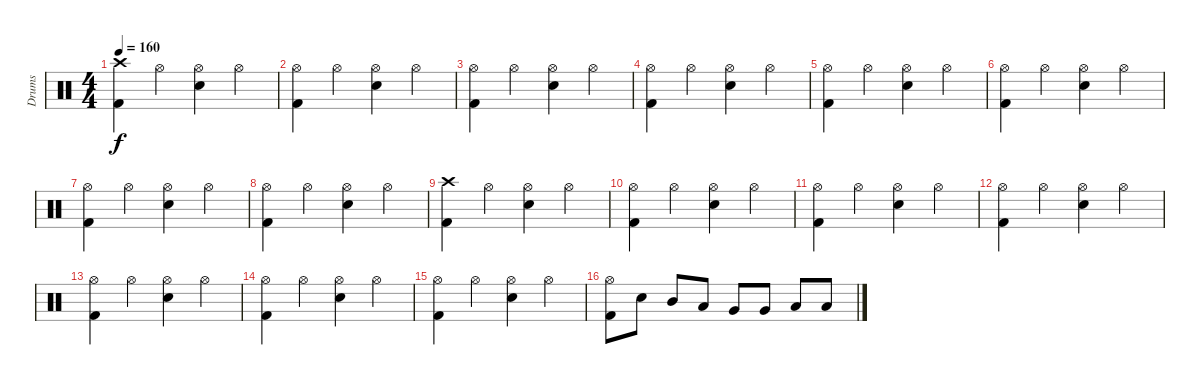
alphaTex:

\track ("Drums" "Drums") {instrument percussion}
\staff {score}
\articulation defaults
\ts (4 4)
\tempo 160
\clef neutral
\ks c
("Kick (hit) 2" "Crash high (hit)").4{dy f} "Hi-Hat (open)".4 ("Electric Snare (hit)" "Hi-Hat (open)").4 "Hi-Hat (open)".4 |
("Kick (hit) 2" "Hi-Hat (open)").4 "Hi-Hat (open)".4 ("Electric Snare (hit)" "Hi-Hat (open)").4 "Hi-Hat (open)".4 |
("Kick (hit) 2" "Hi-Hat (open)").4 "Hi-Hat (open)".4 ("Electric Snare (hit)" "Hi-Hat (open)").4 "Hi-Hat (open)".4 |
("Kick (hit) 2" "Hi-Hat (open)").4 "Hi-Hat (open)".4 ("Electric Snare (hit)" "Hi-Hat (open)").4 "Hi-Hat (open)".4 |
("Kick (hit) 2" "Hi-Hat (open)").4 "Hi-Hat (open)".4 ("Electric Snare (hit)" "Hi-Hat (open)").4 "Hi-Hat (open)".4 |
("Kick (hit) 2" "Hi-Hat (open)").4 "Hi-Hat (open)".4 ("Electric Snare (hit)" "Hi-Hat (open)").4 "Hi-Hat (open)".4 |
("Kick (hit) 2" "Hi-Hat (open)").4 "Hi-Hat (open)".4 ("Electric Snare (hit)" "Hi-Hat (open)").4 "Hi-Hat (open)".4 |
("Kick (hit) 2" "Hi-Hat (open)").4 "Hi-Hat (open)".4 ("Electric Snare (hit)" "Hi-Hat (open)").4 "Hi-Hat (open)".4 |
("Kick (hit) 2" "Crash high (hit)").4 "Hi-Hat (open)".4 ("Electric Snare (hit)" "Hi-Hat (open)").4 "Hi-Hat (open)".4 |
("Kick (hit) 2" "Hi-Hat (open)").4 "Hi-Hat (open)".4 ("Electric Snare (hit)" "Hi-Hat (open)").4 "Hi-Hat (open)".4 |
("Kick (hit) 2" "Hi-Hat (open)").4 "Hi-Hat (open)".4 ("Electric Snare (hit)" "Hi-Hat (open)").4 "Hi-Hat (open)".4 |
("Kick (hit) 2" "Hi-Hat (open)").4 "Hi-Hat (open)".4 ("Electric Snare (hit)" "Hi-Hat (open)").4 "Hi-Hat (open)".4 |
("Kick (hit) 2" "Hi-Hat (open)").4 "Hi-Hat (open)".4 ("Electric Snare (hit)" "Hi-Hat (open)").4 "Hi-Hat (open)".4 |
("Kick (hit) 2" "Hi-Hat (open)").4 "Hi-Hat (open)".4 ("Electric Snare (hit)" "Hi-Hat (open)").4 "Hi-Hat (open)".4 |
("Kick (hit) 2" "Hi-Hat (open)").4 "Hi-Hat (open)".4 ("Electric Snare (hit)" "Hi-Hat (open)").4 "Hi-Hat (open)".4 |
("Kick (hit) 2" "Hi-Hat (open)").8 "Electric Snare (hit)".8 "Mid Tom (hit)".8 "Low Tom (hit)".8 "Very Low Tom (hit)".8 "Very Low Tom (hit)".8 "Low Floor Tom (hit)".8 "Low Floor Tom (hit)".8
